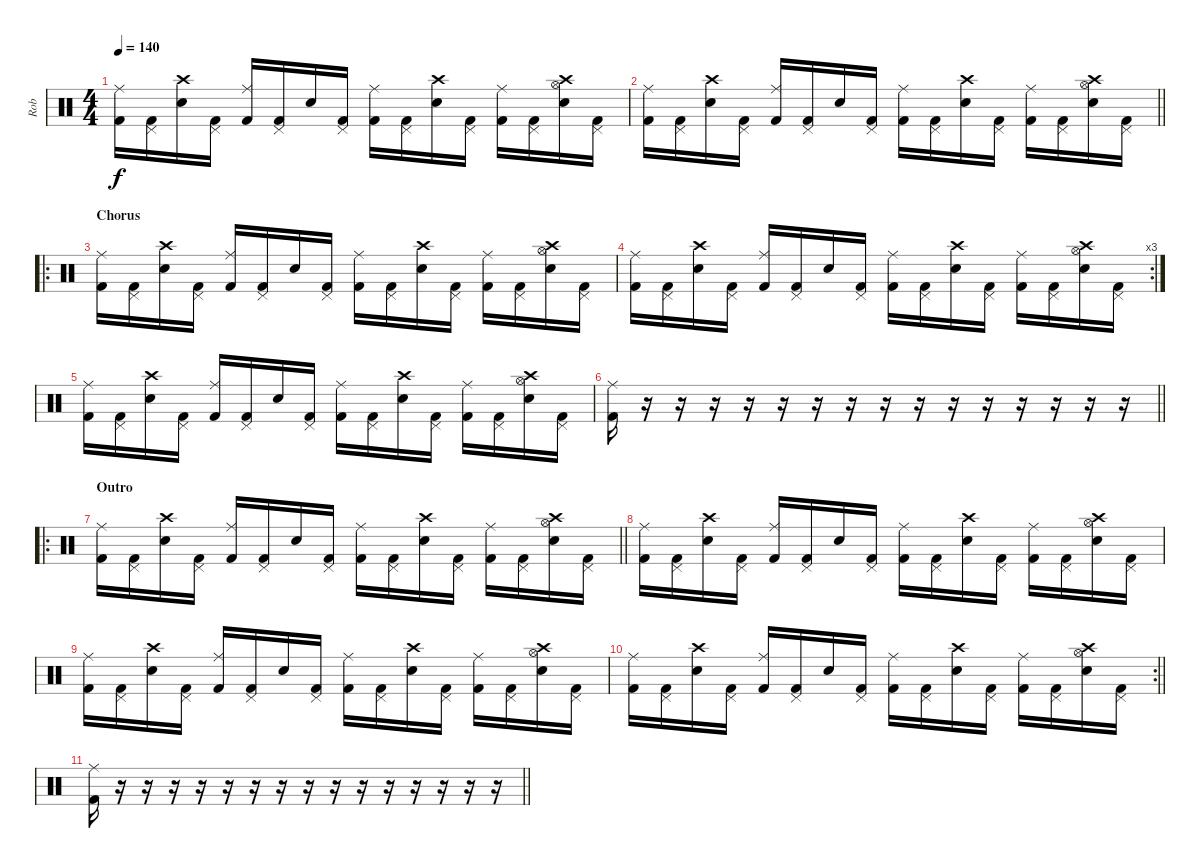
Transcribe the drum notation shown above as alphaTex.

\track ("Rob" "Rob") {instrument percussion}
\staff {score}
\articulation defaults
\ts (4 4)
\tempo 140
\clef neutral
\ks c
("Ride (middle)" "Kick (hit) 2").16{dy f} ("Pedal Hi-Hat (hit)" "Kick (hit) 2").16 ("Crash high (hit)" "Snare (hit) 2").16 ("Pedal Hi-Hat (hit)" "Kick (hit) 2").16 ("Ride (middle)" "Kick (hit) 2").16 ("Pedal Hi-Hat (hit)" "Kick (hit) 2").16 "Snare (hit) 2".16 ("Pedal Hi-Hat (hit)" "Kick (hit) 2").16 ("Ride (middle)" "Kick (hit) 2").16 ("Pedal Hi-Hat (hit)" "Kick (hit) 2").16 ("Crash high (hit)" "Snare (hit) 2").16 ("Pedal Hi-Hat (hit)" "Kick (hit) 2").16 ("Ride (middle)" "Kick (hit) 2").16 ("Pedal Hi-Hat (hit)" "Kick (hit) 2").16 ("Crash high (hit)" "Hi-Hat (open)" "Snare (hit) 2").16 ("Pedal Hi-Hat (hit)" "Kick (hit) 2").16 |
\barLineRight lightlight
("Ride (middle)" "Kick (hit) 2").16 ("Pedal Hi-Hat (hit)" "Kick (hit) 2").16 ("Crash high (hit)" "Snare (hit) 2").16 ("Pedal Hi-Hat (hit)" "Kick (hit) 2").16 ("Ride (middle)" "Kick (hit) 2").16 ("Pedal Hi-Hat (hit)" "Kick (hit) 2").16 "Snare (hit) 2".16 ("Pedal Hi-Hat (hit)" "Kick (hit) 2").16 ("Ride (middle)" "Kick (hit) 2").16 ("Pedal Hi-Hat (hit)" "Kick (hit) 2").16 ("Crash high (hit)" "Snare (hit) 2").16 ("Pedal Hi-Hat (hit)" "Kick (hit) 2").16 ("Ride (middle)" "Kick (hit) 2").16 ("Pedal Hi-Hat (hit)" "Kick (hit) 2").16 ("Crash high (hit)" "Hi-Hat (open)" "Snare (hit) 2").16 ("Pedal Hi-Hat (hit)" "Kick (hit) 2").16 |
\ro
\section ("" "Chorus")
("Ride (middle)" "Kick (hit) 2").16 ("Pedal Hi-Hat (hit)" "Kick (hit) 2").16 ("Crash high (hit)" "Snare (hit) 2").16 ("Pedal Hi-Hat (hit)" "Kick (hit) 2").16 ("Ride (middle)" "Kick (hit) 2").16 ("Pedal Hi-Hat (hit)" "Kick (hit) 2").16 "Snare (hit) 2".16 ("Pedal Hi-Hat (hit)" "Kick (hit) 2").16 ("Ride (middle)" "Kick (hit) 2").16 ("Pedal Hi-Hat (hit)" "Kick (hit) 2").16 ("Crash high (hit)" "Snare (hit) 2").16 ("Pedal Hi-Hat (hit)" "Kick (hit) 2").16 ("Ride (middle)" "Kick (hit) 2").16 ("Pedal Hi-Hat (hit)" "Kick (hit) 2").16 ("Crash high (hit)" "Hi-Hat (open)" "Snare (hit) 2").16 ("Pedal Hi-Hat (hit)" "Kick (hit) 2").16 |
\rc 3
("Ride (middle)" "Kick (hit) 2").16 ("Pedal Hi-Hat (hit)" "Kick (hit) 2").16 ("Crash high (hit)" "Snare (hit) 2").16 ("Pedal Hi-Hat (hit)" "Kick (hit) 2").16 ("Ride (middle)" "Kick (hit) 2").16 ("Pedal Hi-Hat (hit)" "Kick (hit) 2").16 "Snare (hit) 2".16 ("Pedal Hi-Hat (hit)" "Kick (hit) 2").16 ("Ride (middle)" "Kick (hit) 2").16 ("Pedal Hi-Hat (hit)" "Kick (hit) 2").16 ("Crash high (hit)" "Snare (hit) 2").16 ("Pedal Hi-Hat (hit)" "Kick (hit) 2").16 ("Ride (middle)" "Kick (hit) 2").16 ("Pedal Hi-Hat (hit)" "Kick (hit) 2").16 ("Crash high (hit)" "Hi-Hat (open)" "Snare (hit) 2").16 ("Pedal Hi-Hat (hit)" "Kick (hit) 2").16 |
("Ride (middle)" "Kick (hit) 2").16 ("Pedal Hi-Hat (hit)" "Kick (hit) 2").16 ("Crash high (hit)" "Snare (hit) 2").16 ("Pedal Hi-Hat (hit)" "Kick (hit) 2").16 ("Ride (middle)" "Kick (hit) 2").16 ("Pedal Hi-Hat (hit)" "Kick (hit) 2").16 "Snare (hit) 2".16 ("Pedal Hi-Hat (hit)" "Kick (hit) 2").16 ("Ride (middle)" "Kick (hit) 2").16 ("Pedal Hi-Hat (hit)" "Kick (hit) 2").16 ("Crash high (hit)" "Snare (hit) 2").16 ("Pedal Hi-Hat (hit)" "Kick (hit) 2").16 ("Ride (middle)" "Kick (hit) 2").16 ("Pedal Hi-Hat (hit)" "Kick (hit) 2").16 ("Crash high (hit)" "Hi-Hat (open)" "Snare (hit) 2").16 ("Pedal Hi-Hat (hit)" "Kick (hit) 2").16 |
\barLineRight lightlight
("Ride (middle)" "Kick (hit) 2").16 r.16 r.16 r.16 r.16 r.16 r.16 r.16 r.16 r.16 r.16 r.16 r.16 r.16 r.16 r.16 |
\ro
\section ("" "Outro ")
\barLineRight lightlight
("Ride (middle)" "Kick (hit) 2").16 ("Pedal Hi-Hat (hit)" "Kick (hit) 2").16 ("Crash high (hit)" "Snare (hit) 2").16 ("Pedal Hi-Hat (hit)" "Kick (hit) 2").16 ("Ride (middle)" "Kick (hit) 2").16 ("Pedal Hi-Hat (hit)" "Kick (hit) 2").16 "Snare (hit) 2".16 ("Pedal Hi-Hat (hit)" "Kick (hit) 2").16 ("Ride (middle)" "Kick (hit) 2").16 ("Pedal Hi-Hat (hit)" "Kick (hit) 2").16 ("Crash high (hit)" "Snare (hit) 2").16 ("Pedal Hi-Hat (hit)" "Kick (hit) 2").16 ("Ride (middle)" "Kick (hit) 2").16 ("Pedal Hi-Hat (hit)" "Kick (hit) 2").16 ("Crash high (hit)" "Hi-Hat (open)" "Snare (hit) 2").16 ("Pedal Hi-Hat (hit)" "Kick (hit) 2").16 |
("Ride (middle)" "Kick (hit) 2").16 ("Pedal Hi-Hat (hit)" "Kick (hit) 2").16 ("Crash high (hit)" "Snare (hit) 2").16 ("Pedal Hi-Hat (hit)" "Kick (hit) 2").16 ("Ride (middle)" "Kick (hit) 2").16 ("Pedal Hi-Hat (hit)" "Kick (hit) 2").16 "Snare (hit) 2".16 ("Pedal Hi-Hat (hit)" "Kick (hit) 2").16 ("Ride (middle)" "Kick (hit) 2").16 ("Pedal Hi-Hat (hit)" "Kick (hit) 2").16 ("Crash high (hit)" "Snare (hit) 2").16 ("Pedal Hi-Hat (hit)" "Kick (hit) 2").16 ("Ride (middle)" "Kick (hit) 2").16 ("Pedal Hi-Hat (hit)" "Kick (hit) 2").16 ("Crash high (hit)" "Hi-Hat (open)" "Snare (hit) 2").16 ("Pedal Hi-Hat (hit)" "Kick (hit) 2").16 |
("Ride (middle)" "Kick (hit) 2").16 ("Pedal Hi-Hat (hit)" "Kick (hit) 2").16 ("Crash high (hit)" "Snare (hit) 2").16 ("Pedal Hi-Hat (hit)" "Kick (hit) 2").16 ("Ride (middle)" "Kick (hit) 2").16 ("Pedal Hi-Hat (hit)" "Kick (hit) 2").16 "Snare (hit) 2".16 ("Pedal Hi-Hat (hit)" "Kick (hit) 2").16 ("Ride (middle)" "Kick (hit) 2").16 ("Pedal Hi-Hat (hit)" "Kick (hit) 2").16 ("Crash high (hit)" "Snare (hit) 2").16 ("Pedal Hi-Hat (hit)" "Kick (hit) 2").16 ("Ride (middle)" "Kick (hit) 2").16 ("Pedal Hi-Hat (hit)" "Kick (hit) 2").16 ("Crash high (hit)" "Hi-Hat (open)" "Snare (hit) 2").16 ("Pedal Hi-Hat (hit)" "Kick (hit) 2").16 |
\rc 2
\barLineRight lightlight
("Ride (middle)" "Kick (hit) 2").16 ("Pedal Hi-Hat (hit)" "Kick (hit) 2").16 ("Crash high (hit)" "Snare (hit) 2").16 ("Pedal Hi-Hat (hit)" "Kick (hit) 2").16 ("Ride (middle)" "Kick (hit) 2").16 ("Pedal Hi-Hat (hit)" "Kick (hit) 2").16 "Snare (hit) 2".16 ("Pedal Hi-Hat (hit)" "Kick (hit) 2").16 ("Ride (middle)" "Kick (hit) 2").16 ("Pedal Hi-Hat (hit)" "Kick (hit) 2").16 ("Crash high (hit)" "Snare (hit) 2").16 ("Pedal Hi-Hat (hit)" "Kick (hit) 2").16 ("Ride (middle)" "Kick (hit) 2").16 ("Pedal Hi-Hat (hit)" "Kick (hit) 2").16 ("Crash high (hit)" "Hi-Hat (open)" "Snare (hit) 2").16 ("Pedal Hi-Hat (hit)" "Kick (hit) 2").16 |
\barLineRight lightlight
("Ride (middle)" "Kick (hit) 2").16 r.16 r.16 r.16 r.16 r.16 r.16 r.16 r.16 r.16 r.16 r.16 r.16 r.16 r.16 r.16
